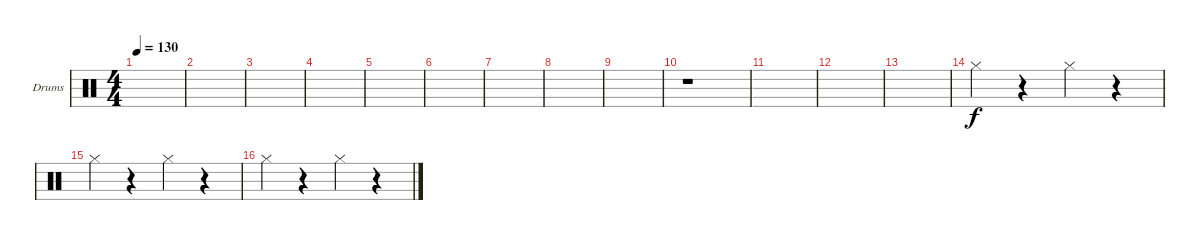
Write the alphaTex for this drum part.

\defaultSystemsLayout 4
\bracketExtendMode groupsimilarinstruments
\firstSystemTrackNameOrientation horizontal
\otherSystemsTrackNameOrientation horizontal
\track ("Drumkit" "Drums") {instrument percussion}
\staff {score}
\articulation defaults
\ts (4 4)
\tempo 130
\clef neutral
\ks c
|
\scale
0.472222 |
\scale
0.263889 |
\scale
0.263889 |
\scale
0.333333 |
\scale
0.333333 |
\scale
0.333333 |
\scale
0.333333 |
\scale
0.333333 |
\scale
0.333333 r.1 |
\scale
0.333333 |
\scale
0.333333 |
\scale
0.333333 |
\scale
0.333333 "Hi-Hat (closed)".4 r.4 "Hi-Hat (closed)".4 r.4 |
\scale
0.333333 "Hi-Hat (closed)".4 r.4 "Hi-Hat (closed)".4 r.4 |
\scale
0.333333 "Hi-Hat (closed)".4 r.4 "Hi-Hat (closed)".4 r.4
